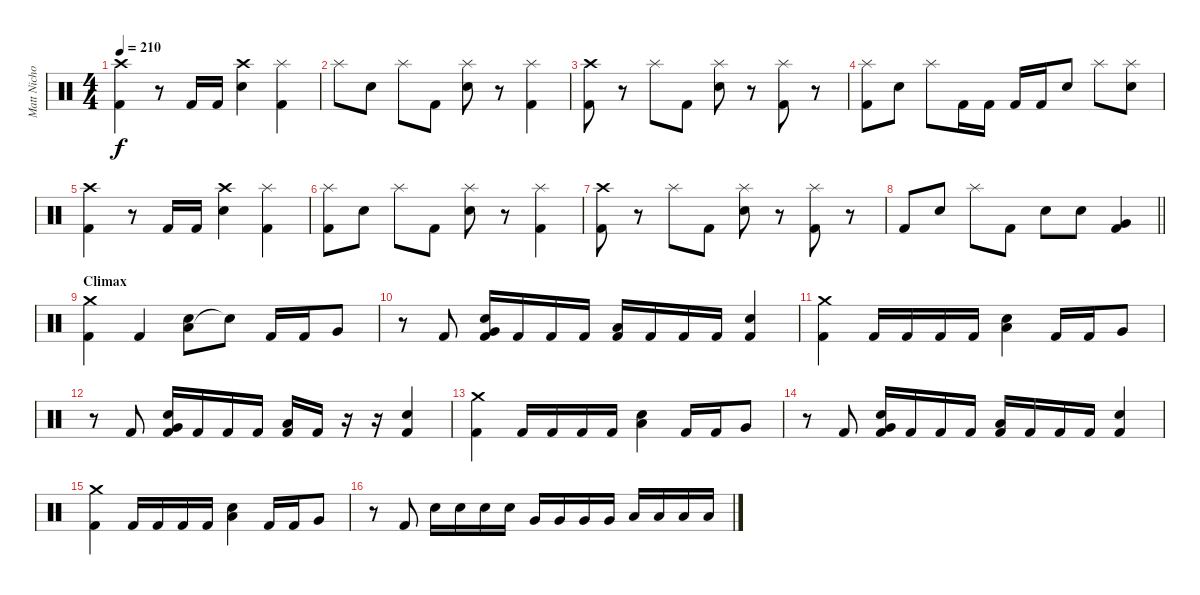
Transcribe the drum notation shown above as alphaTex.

\track ("Matt Nicholls" "Matt Nicho") {instrument percussion}
\staff {score}
\articulation defaults
\ts (4 4)
\tempo 210
\clef neutral
\ks c
("Crash high (hit)" "Kick (hit) 2").4{dy f} r.8 "Kick (hit) 2".16 "Kick (hit) 2".16 ("Crash high (hit)" "Snare (hit) 2").4 ("Splash (hit)" "Kick (hit) 2").4 |
"Splash (hit)".8 "Snare (hit) 2".8 "Splash (hit)".8 "Kick (hit) 2".8 ("Splash (hit)" "Snare (hit) 2").8 r.8 ("Splash (hit)" "Kick (hit) 2").4 |
("Crash high (hit)" "Kick (hit) 2").8 r.8 "Splash (hit)".8 "Kick (hit) 2".8 ("Splash (hit)" "Snare (hit) 2").8 r.8 ("Splash (hit)" "Kick (hit) 2").8 r.8 |
("Splash (hit)" "Kick (hit) 2").8 "Snare (hit) 2".8 "Splash (hit)".8 "Kick (hit) 2".16 "Kick (hit) 2".16 "Kick (hit) 2".16 "Kick (hit) 2".16 "Snare (hit) 2".8 "Splash (hit)".8 ("Splash (hit)" "Snare (hit) 2").8 |
("Crash high (hit)" "Kick (hit) 2").4 r.8 "Kick (hit) 2".16 "Kick (hit) 2".16 ("Crash high (hit)" "Snare (hit) 2").4 ("Splash (hit)" "Kick (hit) 2").4 |
("Splash (hit)" "Kick (hit) 2").8 "Snare (hit) 2".8 "Splash (hit)".8 "Kick (hit) 2".8 ("Splash (hit)" "Snare (hit) 2").8 r.8 ("Splash (hit)" "Kick (hit) 2").4 |
("Crash high (hit)" "Kick (hit) 2").8 r.8 "Splash (hit)".8 "Kick (hit) 2".8 ("Splash (hit)" "Snare (hit) 2").8 r.8 ("Splash (hit)" "Kick (hit) 2").8 r.8 |
\barLineRight lightlight "Kick (hit) 2".8 "Snare (hit) 2".8 "Splash (hit)".8 "Kick (hit) 2".8 "Snare (hit) 2".8 "Snare (hit) 2".8
("Very Low Tom (hit)" "Kick (hit) 2").4 |
\section ("" "Climax")
("Crash medium (hit)" "Kick (hit) 2").4 "Kick (hit) 2".4 ("Low Tom (hit)" "Snare (hit) 2").8 "Snare (hit)"{t}.8 "Kick (hit) 2".16 "Kick (hit) 2".16 "Very Low Tom (hit)".8 |
r.8 "Kick (hit) 2".8 ("Very Low Tom (hit)" "Snare (hit) 2" "Kick (hit) 2").16 "Kick (hit) 2".16 "Kick (hit) 2".16 "Kick (hit) 2".16 ("Low Floor Tom (hit)" "Kick (hit) 2").16 "Kick (hit) 2".16 "Kick (hit) 2".16 "Kick (hit) 2".16 ("Snare (hit) 2" "Kick (hit) 2").4 |
("Crash medium (hit)" "Kick (hit) 2").4 "Kick (hit) 2".16 "Kick (hit) 2".16 "Kick (hit) 2".16 "Kick (hit) 2".16 ("Low Tom (hit)" "Snare (hit) 2").4 "Kick (hit) 2".16 "Kick (hit) 2".16 "Very Low Tom (hit)".8 |
r.8 "Kick (hit) 2".8 ("Very Low Tom (hit)" "Snare (hit) 2" "Kick (hit) 2").16 "Kick (hit) 2".16 "Kick (hit) 2".16 "Kick (hit) 2".16 ("Low Floor Tom (hit)" "Kick (hit) 2").16 "Kick (hit) 2".16 r.16 r.16 ("Snare (hit) 2" "Kick (hit) 2").4 |
("Crash medium (hit)" "Kick (hit) 2").4 "Kick (hit) 2".16 "Kick (hit) 2".16 "Kick (hit) 2".16 "Kick (hit) 2".16 ("Low Tom (hit)" "Snare (hit) 2").4 "Kick (hit) 2".16 "Kick (hit) 2".16 "Very Low Tom (hit)".8 |
r.8 "Kick (hit) 2".8 ("Very Low Tom (hit)" "Snare (hit) 2" "Kick (hit) 2").16 "Kick (hit) 2".16 "Kick (hit) 2".16 "Kick (hit) 2".16 ("Low Floor Tom (hit)" "Kick (hit) 2").16 "Kick (hit) 2".16 "Kick (hit) 2".16 "Kick (hit) 2".16 ("Snare (hit) 2" "Kick (hit) 2").4 |
("Crash medium (hit)" "Kick (hit) 2").4 "Kick (hit) 2".16 "Kick (hit) 2".16 "Kick (hit) 2".16 "Kick (hit) 2".16 ("Low Tom (hit)" "Snare (hit) 2").4 "Kick (hit) 2".16 "Kick (hit) 2".16 "Very Low Tom (hit)".8 |
r.8 "Kick (hit) 2".8 "Snare (hit) 2".16 "Snare (hit) 2".16 "Snare (hit) 2".16 "Snare (hit) 2".16 "Very Low Tom (hit)".16 "Very Low Tom (hit)".16 "Very Low Tom (hit)".16 "Very Low Tom (hit)".16 "Low Floor Tom (hit)".16 "Low Floor Tom (hit)".16 "Low Floor Tom (hit)".16 "Low Floor Tom (hit)".16
